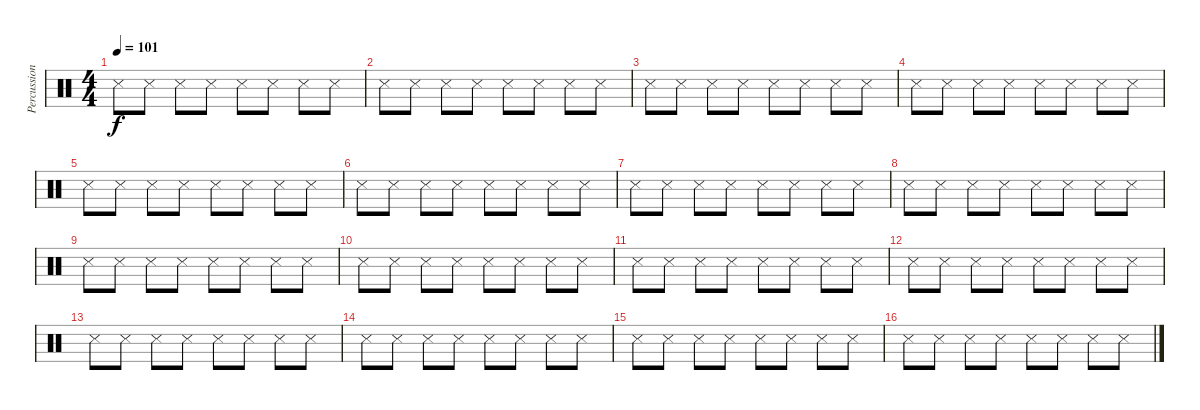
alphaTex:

\track ("Percussions" "Percussion") {instrument percussion}
\staff {score}
\articulation defaults
\ts (4 4)
\tempo 101
\clef neutral
\ks c "Metronome (hit)".8{dy f} "Metronome (hit)".8 "Metronome (hit)".8 "Metronome (hit)".8 "Metronome (hit)".8 "Metronome (hit)".8 "Metronome (hit)".8 "Metronome (hit)".8
|
"Metronome (hit)".8 "Metronome (hit)".8 "Metronome (hit)".8 "Metronome (hit)".8 "Metronome (hit)".8 "Metronome (hit)".8 "Metronome (hit)".8 "Metronome (hit)".8 |
"Metronome (hit)".8 "Metronome (hit)".8 "Metronome (hit)".8 "Metronome (hit)".8 "Metronome (hit)".8 "Metronome (hit)".8 "Metronome (hit)".8 "Metronome (hit)".8 |
"Metronome (hit)".8 "Metronome (hit)".8 "Metronome (hit)".8 "Metronome (hit)".8 "Metronome (hit)".8 "Metronome (hit)".8 "Metronome (hit)".8 "Metronome (hit)".8 |
"Metronome (hit)".8 "Metronome (hit)".8 "Metronome (hit)".8 "Metronome (hit)".8 "Metronome (hit)".8 "Metronome (hit)".8 "Metronome (hit)".8 "Metronome (hit)".8 |
"Metronome (hit)".8 "Metronome (hit)".8 "Metronome (hit)".8 "Metronome (hit)".8 "Metronome (hit)".8 "Metronome (hit)".8 "Metronome (hit)".8 "Metronome (hit)".8 |
"Metronome (hit)".8 "Metronome (hit)".8 "Metronome (hit)".8 "Metronome (hit)".8 "Metronome (hit)".8 "Metronome (hit)".8 "Metronome (hit)".8 "Metronome (hit)".8 |
"Metronome (hit)".8 "Metronome (hit)".8 "Metronome (hit)".8 "Metronome (hit)".8 "Metronome (hit)".8 "Metronome (hit)".8 "Metronome (hit)".8 "Metronome (hit)".8 |
"Metronome (hit)".8 "Metronome (hit)".8 "Metronome (hit)".8 "Metronome (hit)".8 "Metronome (hit)".8 "Metronome (hit)".8 "Metronome (hit)".8 "Metronome (hit)".8 |
"Metronome (hit)".8 "Metronome (hit)".8 "Metronome (hit)".8 "Metronome (hit)".8 "Metronome (hit)".8 "Metronome (hit)".8 "Metronome (hit)".8 "Metronome (hit)".8 |
"Metronome (hit)".8 "Metronome (hit)".8 "Metronome (hit)".8 "Metronome (hit)".8 "Metronome (hit)".8 "Metronome (hit)".8 "Metronome (hit)".8 "Metronome (hit)".8 |
"Metronome (hit)".8 "Metronome (hit)".8 "Metronome (hit)".8 "Metronome (hit)".8 "Metronome (hit)".8 "Metronome (hit)".8 "Metronome (hit)".8 "Metronome (hit)".8 |
"Metronome (hit)".8 "Metronome (hit)".8 "Metronome (hit)".8 "Metronome (hit)".8 "Metronome (hit)".8 "Metronome (hit)".8 "Metronome (hit)".8 "Metronome (hit)".8 |
"Metronome (hit)".8 "Metronome (hit)".8 "Metronome (hit)".8 "Metronome (hit)".8 "Metronome (hit)".8 "Metronome (hit)".8 "Metronome (hit)".8 "Metronome (hit)".8 |
"Metronome (hit)".8 "Metronome (hit)".8 "Metronome (hit)".8 "Metronome (hit)".8 "Metronome (hit)".8 "Metronome (hit)".8 "Metronome (hit)".8 "Metronome (hit)".8 |
"Metronome (hit)".8 "Metronome (hit)".8 "Metronome (hit)".8 "Metronome (hit)".8 "Metronome (hit)".8 "Metronome (hit)".8 "Metronome (hit)".8 "Metronome (hit)".8
